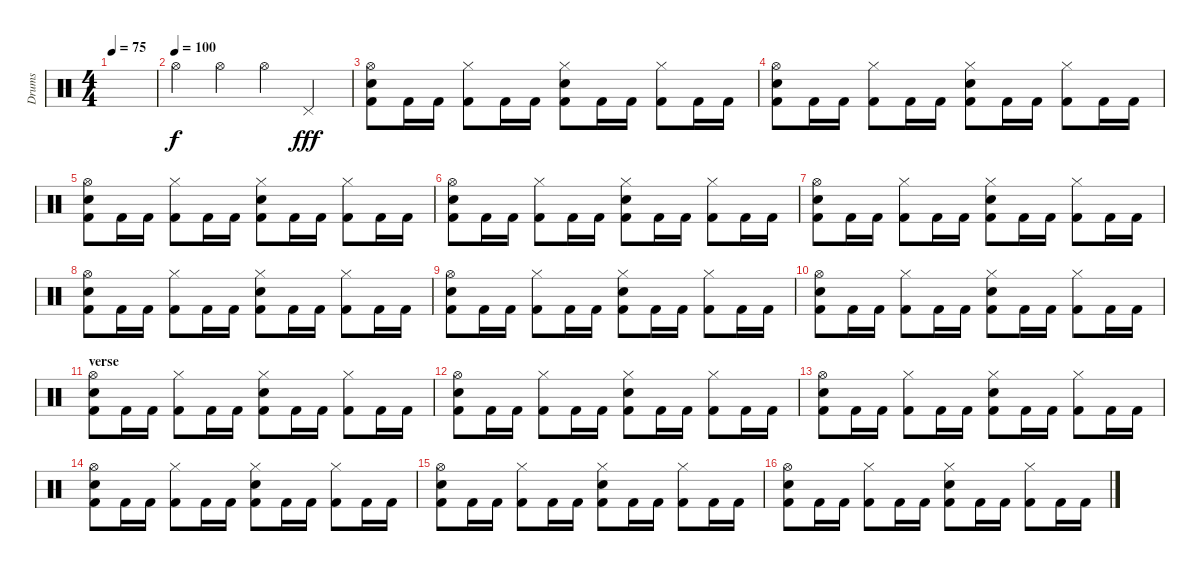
\track ("Drums" "Drums") {instrument percussion}
\staff {score}
\articulation defaults
\ts (4 4)
\tempo 75
\clef neutral
\ks c
|
\tempo (100)
"Hi-Hat (open)".4 "Hi-Hat (open)".4 "Hi-Hat (open)".4 "Pedal Hi-Hat (hit)".4{dy fff} |
("Electric Snare (hit)" "Hi-Hat (open)" "Kick (hit) 2").8 "Kick (hit) 2".16 "Kick (hit) 2".16 ("Hi-Hat (closed)" "Kick (hit) 2").8 "Kick (hit) 2".16 "Kick (hit) 2".16 ("Hi-Hat (closed)" "Electric Snare (hit)" "Kick (hit) 2").8 "Kick (hit) 2".16 "Kick (hit) 2".16 ("Hi-Hat (closed)" "Kick (hit) 2").8 "Kick (hit) 2".16 "Kick (hit) 2".16 |
("Electric Snare (hit)" "Hi-Hat (open)" "Kick (hit) 2").8 "Kick (hit) 2".16 "Kick (hit) 2".16 ("Hi-Hat (closed)" "Kick (hit) 2").8 "Kick (hit) 2".16 "Kick (hit) 2".16 ("Hi-Hat (closed)" "Electric Snare (hit)" "Kick (hit) 2").8 "Kick (hit) 2".16 "Kick (hit) 2".16 ("Hi-Hat (closed)" "Kick (hit) 2").8 "Kick (hit) 2".16 "Kick (hit) 2".16 |
("Electric Snare (hit)" "Hi-Hat (open)" "Kick (hit) 2").8 "Kick (hit) 2".16 "Kick (hit) 2".16 ("Hi-Hat (closed)" "Kick (hit) 2").8 "Kick (hit) 2".16 "Kick (hit) 2".16 ("Hi-Hat (closed)" "Electric Snare (hit)" "Kick (hit) 2").8 "Kick (hit) 2".16 "Kick (hit) 2".16 ("Hi-Hat (closed)" "Kick (hit) 2").8 "Kick (hit) 2".16 "Kick (hit) 2".16 |
("Electric Snare (hit)" "Hi-Hat (open)" "Kick (hit) 2").8 "Kick (hit) 2".16 "Kick (hit) 2".16 ("Hi-Hat (closed)" "Kick (hit) 2").8 "Kick (hit) 2".16 "Kick (hit) 2".16 ("Hi-Hat (closed)" "Electric Snare (hit)" "Kick (hit) 2").8 "Kick (hit) 2".16 "Kick (hit) 2".16 ("Hi-Hat (closed)" "Kick (hit) 2").8 "Kick (hit) 2".16 "Kick (hit) 2".16 |
("Electric Snare (hit)" "Hi-Hat (open)" "Kick (hit) 2").8 "Kick (hit) 2".16 "Kick (hit) 2".16 ("Hi-Hat (closed)" "Kick (hit) 2").8 "Kick (hit) 2".16 "Kick (hit) 2".16 ("Hi-Hat (closed)" "Electric Snare (hit)" "Kick (hit) 2").8 "Kick (hit) 2".16 "Kick (hit) 2".16 ("Hi-Hat (closed)" "Kick (hit) 2").8 "Kick (hit) 2".16 "Kick (hit) 2".16 |
("Electric Snare (hit)" "Hi-Hat (open)" "Kick (hit) 2").8 "Kick (hit) 2".16 "Kick (hit) 2".16 ("Hi-Hat (closed)" "Kick (hit) 2").8 "Kick (hit) 2".16 "Kick (hit) 2".16 ("Hi-Hat (closed)" "Electric Snare (hit)" "Kick (hit) 2").8 "Kick (hit) 2".16 "Kick (hit) 2".16 ("Hi-Hat (closed)" "Kick (hit) 2").8 "Kick (hit) 2".16 "Kick (hit) 2".16 |
("Electric Snare (hit)" "Hi-Hat (open)" "Kick (hit) 2").8 "Kick (hit) 2".16 "Kick (hit) 2".16 ("Hi-Hat (closed)" "Kick (hit) 2").8 "Kick (hit) 2".16 "Kick (hit) 2".16 ("Hi-Hat (closed)" "Electric Snare (hit)" "Kick (hit) 2").8 "Kick (hit) 2".16 "Kick (hit) 2".16 ("Hi-Hat (closed)" "Kick (hit) 2").8 "Kick (hit) 2".16 "Kick (hit) 2".16 |
("Electric Snare (hit)" "Hi-Hat (open)" "Kick (hit) 2").8 "Kick (hit) 2".16 "Kick (hit) 2".16 ("Hi-Hat (closed)" "Kick (hit) 2").8 "Kick (hit) 2".16 "Kick (hit) 2".16 ("Hi-Hat (closed)" "Electric Snare (hit)" "Kick (hit) 2").8 "Kick (hit) 2".16 "Kick (hit) 2".16 ("Hi-Hat (closed)" "Kick (hit) 2").8 "Kick (hit) 2".16 "Kick (hit) 2".16 |
\section ("" "verse")
("Electric Snare (hit)" "Hi-Hat (open)" "Kick (hit) 2").8 "Kick (hit) 2".16 "Kick (hit) 2".16 ("Hi-Hat (closed)" "Kick (hit) 2").8 "Kick (hit) 2".16 "Kick (hit) 2".16 ("Hi-Hat (closed)" "Electric Snare (hit)" "Kick (hit) 2").8 "Kick (hit) 2".16 "Kick (hit) 2".16 ("Hi-Hat (closed)" "Kick (hit) 2").8 "Kick (hit) 2".16 "Kick (hit) 2".16 |
("Electric Snare (hit)" "Hi-Hat (open)" "Kick (hit) 2").8 "Kick (hit) 2".16 "Kick (hit) 2".16 ("Hi-Hat (closed)" "Kick (hit) 2").8 "Kick (hit) 2".16 "Kick (hit) 2".16 ("Hi-Hat (closed)" "Electric Snare (hit)" "Kick (hit) 2").8 "Kick (hit) 2".16 "Kick (hit) 2".16 ("Hi-Hat (closed)" "Kick (hit) 2").8 "Kick (hit) 2".16 "Kick (hit) 2".16 |
("Electric Snare (hit)" "Hi-Hat (open)" "Kick (hit) 2").8 "Kick (hit) 2".16 "Kick (hit) 2".16 ("Hi-Hat (closed)" "Kick (hit) 2").8 "Kick (hit) 2".16 "Kick (hit) 2".16 ("Hi-Hat (closed)" "Electric Snare (hit)" "Kick (hit) 2").8 "Kick (hit) 2".16 "Kick (hit) 2".16 ("Hi-Hat (closed)" "Kick (hit) 2").8 "Kick (hit) 2".16 "Kick (hit) 2".16 |
("Electric Snare (hit)" "Hi-Hat (open)" "Kick (hit) 2").8 "Kick (hit) 2".16 "Kick (hit) 2".16 ("Hi-Hat (closed)" "Kick (hit) 2").8 "Kick (hit) 2".16 "Kick (hit) 2".16 ("Hi-Hat (closed)" "Electric Snare (hit)" "Kick (hit) 2").8 "Kick (hit) 2".16 "Kick (hit) 2".16 ("Hi-Hat (closed)" "Kick (hit) 2").8 "Kick (hit) 2".16 "Kick (hit) 2".16 |
("Electric Snare (hit)" "Hi-Hat (open)" "Kick (hit) 2").8 "Kick (hit) 2".16 "Kick (hit) 2".16 ("Hi-Hat (closed)" "Kick (hit) 2").8 "Kick (hit) 2".16 "Kick (hit) 2".16 ("Hi-Hat (closed)" "Electric Snare (hit)" "Kick (hit) 2").8 "Kick (hit) 2".16 "Kick (hit) 2".16 ("Hi-Hat (closed)" "Kick (hit) 2").8 "Kick (hit) 2".16 "Kick (hit) 2".16 |
("Electric Snare (hit)" "Hi-Hat (open)" "Kick (hit) 2").8 "Kick (hit) 2".16 "Kick (hit) 2".16 ("Hi-Hat (closed)" "Kick (hit) 2").8 "Kick (hit) 2".16 "Kick (hit) 2".16 ("Hi-Hat (closed)" "Electric Snare (hit)" "Kick (hit) 2").8 "Kick (hit) 2".16 "Kick (hit) 2".16 ("Hi-Hat (closed)" "Kick (hit) 2").8 "Kick (hit) 2".16 "Kick (hit) 2".16
